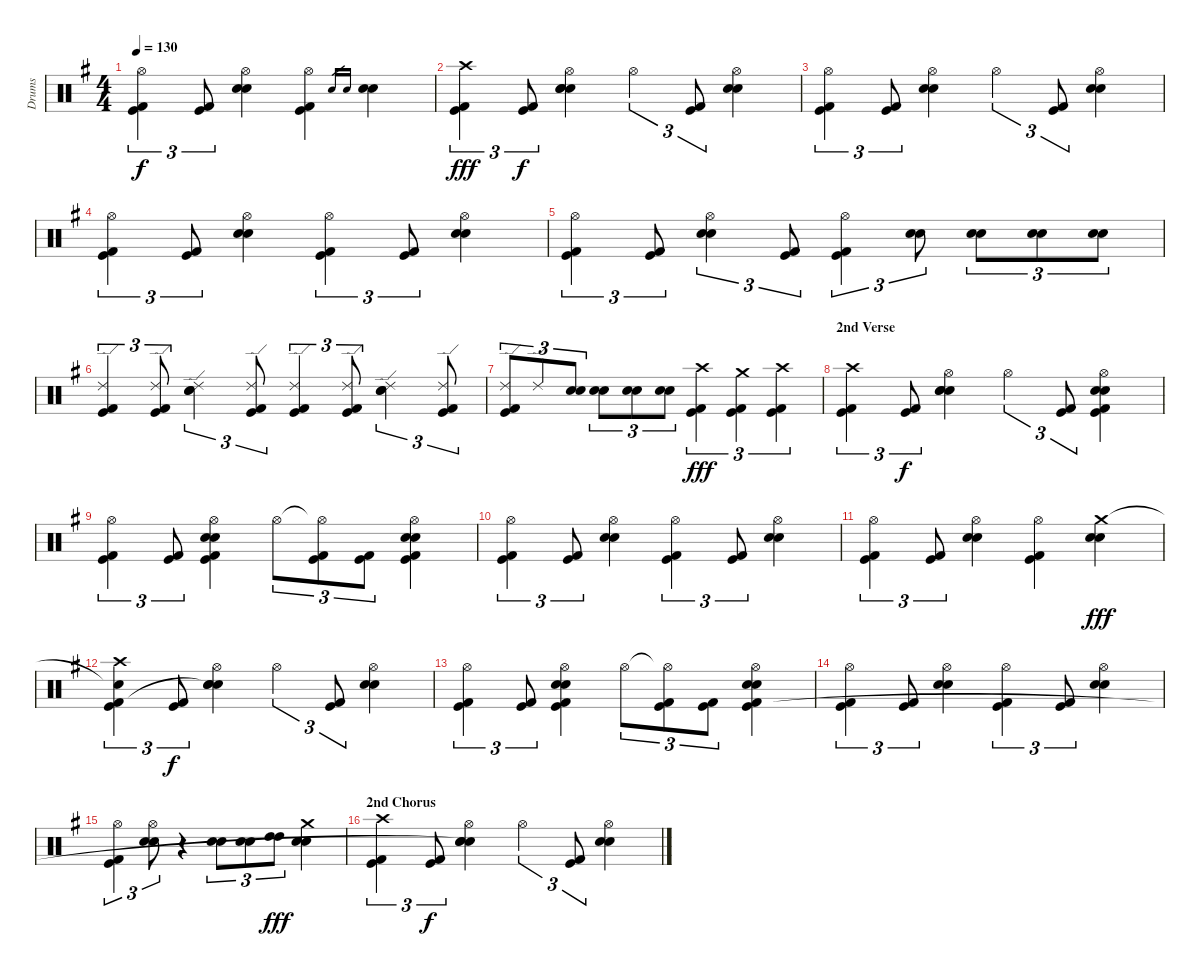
\track ("Drums" "Drums") {instrument percussion}
\staff {score}
\articulation defaults
\ts (4 4)
\tempo 130
\clef neutral
\ks g
("Hi-Hat (open)" "Kick (hit)" "Kick (hit) 2").4{tu (3 2) dy f} ("Kick (hit)" "Kick (hit) 2").8{tu (3 2)} ("Hi-Hat (open)" "Electric Snare (hit)" "Snare (hit) 2").4 ("Hi-Hat (open)" "Kick (hit)" "Kick (hit) 2").4 "Electric Snare (hit)".16{gr} "Snare (hit) 2".16{gr} ("Electric Snare (hit)" "Snare (hit) 2").4 |
("Crash high (hit)" "Kick (hit)" "Kick (hit) 2").4{tu (3 2) dy fff} ("Kick (hit)" "Kick (hit) 2").8{tu (3 2) dy f} ("Hi-Hat (open)" "Electric Snare (hit)" "Snare (hit) 2" "Snare (hit)"{t}).4 "Hi-Hat (open)".4{tu (3 2)} ("Kick (hit)" "Kick (hit) 2").8{tu (3 2)} ("Hi-Hat (open)" "Electric Snare (hit)" "Snare (hit) 2").4 |
("Hi-Hat (open)" "Kick (hit)" "Kick (hit) 2").4{tu (3 2)} ("Kick (hit)" "Kick (hit) 2").8{tu (3 2)} ("Hi-Hat (open)" "Electric Snare (hit)" "Snare (hit) 2").4 "Hi-Hat (open)".4{tu (3 2)} ("Kick (hit)" "Kick (hit) 2").8{tu (3 2)} ("Hi-Hat (open)" "Electric Snare (hit)" "Snare (hit) 2").4 |
("Hi-Hat (open)" "Kick (hit)" "Kick (hit) 2").4{tu (3 2)} ("Kick (hit)" "Kick (hit) 2").8{tu (3 2)} ("Hi-Hat (open)" "Electric Snare (hit)" "Snare (hit) 2").4 ("Hi-Hat (open)" "Kick (hit)" "Kick (hit) 2").4{tu (3 2)} ("Kick (hit)" "Kick (hit) 2").8{tu (3 2)} ("Hi-Hat (open)" "Electric Snare (hit)" "Snare (hit) 2").4 |
("Hi-Hat (open)" "Kick (hit)" "Kick (hit) 2").4{tu (3 2)} ("Kick (hit)" "Kick (hit) 2").8{tu (3 2)} ("Hi-Hat (open)" "Electric Snare (hit)" "Snare (hit) 2").4{tu (3 2)} ("Kick (hit)" "Kick (hit) 2").8{tu (3 2)} ("Hi-Hat (open)" "Kick (hit)" "Kick (hit) 2").4{tu (3 2)} ("Electric Snare (hit)" "Snare (hit) 2").8{tu (3 2)} ("Electric Snare (hit)" "Snare (hit) 2").8{tu (3 2)} ("Electric Snare (hit)" "Snare (hit) 2").8{tu (3 2)} ("Electric Snare (hit)" "Snare (hit) 2").8{tu (3 2)} |
("Ride (edge) 2" "Kick (hit)" "Kick (hit) 2").4{tu (3 2)} ("Ride (edge) 2" "Kick (hit)" "Kick (hit) 2").8{tu (3 2)} ("Ride (edge) 2" "Electric Snare (hit)" "Snare (hit) 2").4{tu (3 2)} ("Ride (edge) 2" "Kick (hit)" "Kick (hit) 2").8{tu (3 2)} ("Ride (edge) 2" "Kick (hit)" "Kick (hit) 2").4{tu (3 2)} ("Ride (edge) 2" "Kick (hit)" "Kick (hit) 2").8{tu (3 2)} ("Ride (edge) 2" "Electric Snare (hit)" "Snare (hit) 2").4{tu (3 2)} ("Ride (edge) 2" "Kick (hit)" "Kick (hit) 2").8{tu (3 2)} |
("Ride (edge) 2" "Kick (hit)" "Kick (hit) 2").8{tu (3 2)} "Ride (edge) 2".8{tu (3 2)} ("Electric Snare (hit)" "Snare (hit) 2").8{tu (3 2)} ("Electric Snare (hit)" "Snare (hit) 2").8{tu (3 2)} ("Electric Snare (hit)" "Snare (hit) 2").8{tu (3 2)} ("Electric Snare (hit)" "Snare (hit) 2").8{tu (3 2)} ("Crash high (hit)" "Kick (hit)" "Kick (hit) 2").4{tu (3 2) dy fff} ("Crash medium (hit)" "Kick (hit)" "Kick (hit) 2").4{tu (3 2)} ("Crash high (hit)" "Kick (hit)" "Kick (hit) 2").4{tu (3 2)} |
\section ("" "2nd Verse")
("Crash high (hit)" "Kick (hit)" "Kick (hit) 2").4{tu (3 2)} ("Kick (hit)" "Kick (hit) 2").8{tu (3 2) dy f} ("Hi-Hat (open)" "Electric Snare (hit)" "Snare (hit) 2" "Snare (hit)").4 "Hi-Hat (open)".4{tu (3 2)} ("Kick (hit)" "Kick (hit) 2").8{tu (3 2)} ("Hi-Hat (open)" "Electric Snare (hit)" "Snare (hit) 2" "Kick (hit)" "Kick (hit) 2").4 |
("Hi-Hat (open)" "Kick (hit)" "Kick (hit) 2").4{tu (3 2)} ("Kick (hit)" "Kick (hit) 2").8{tu (3 2)} ("Hi-Hat (open)" "Electric Snare (hit)" "Snare (hit) 2" "Kick (hit)" "Kick (hit) 2").4 "Hi-Hat (open)".8{tu (3 2)} ("Hi-Hat (open)"{t} "Kick (hit)" "Kick (hit) 2").8{tu (3 2)} ("Kick (hit)" "Kick (hit) 2").8{tu (3 2)} ("Hi-Hat (open)" "Electric Snare (hit)" "Snare (hit) 2" "Kick (hit)" "Kick (hit) 2").4 |
("Hi-Hat (open)" "Kick (hit)" "Kick (hit) 2").4{tu (3 2)} ("Kick (hit)" "Kick (hit) 2").8{tu (3 2)} ("Hi-Hat (open)" "Electric Snare (hit)" "Snare (hit) 2").4 ("Hi-Hat (open)" "Kick (hit)" "Kick (hit) 2").4{tu (3 2)} ("Kick (hit)" "Kick (hit) 2").8{tu (3 2)} ("Hi-Hat (open)" "Electric Snare (hit)" "Snare (hit) 2").4 |
("Hi-Hat (open)" "Kick (hit)" "Kick (hit) 2").4{tu (3 2)} ("Kick (hit)" "Kick (hit) 2").8{tu (3 2)} ("Hi-Hat (open)" "Electric Snare (hit)" "Snare (hit) 2").4 ("Hi-Hat (open)" "Kick (hit)" "Kick (hit) 2").4 ("Crash medium (hit)" "Electric Snare (hit)" "Snare (hit) 2").4{dy fff} |
("Snare (hit)"{t} "Crash high (hit)" "Kick (hit)" "Kick (hit) 2").4{tu (3 2)} ("Kick (hit)" "Kick (hit) 2").8{tu (3 2) dy f} ("Hi-Hat (open)" "Electric Snare (hit)" "Snare (hit) 2" "Snare (hit)"{t}).4 "Hi-Hat (open)".4{tu (3 2)} ("Kick (hit)" "Kick (hit) 2").8{tu (3 2)} ("Hi-Hat (open)" "Electric Snare (hit)" "Snare (hit) 2").4 |
("Hi-Hat (open)" "Kick (hit)" "Kick (hit) 2").4{tu (3 2)} ("Kick (hit)" "Kick (hit) 2").8{tu (3 2)} ("Hi-Hat (open)" "Electric Snare (hit)" "Snare (hit) 2" "Kick (hit)" "Kick (hit) 2").4 "Hi-Hat (open)".8{tu (3 2)} ("Hi-Hat (open)"{t} "Kick (hit)" "Kick (hit) 2").8{tu (3 2)} ("Kick (hit)" "Kick (hit) 2").8{tu (3 2)} ("Hi-Hat (open)" "Electric Snare (hit)" "Snare (hit) 2" "Kick (hit)" "Kick (hit) 2").4 |
("Hi-Hat (open)" "Kick (hit)" "Kick (hit) 2").4{tu (3 2)} ("Kick (hit)" "Kick (hit) 2").8{tu (3 2)} ("Hi-Hat (open)" "Electric Snare (hit)" "Snare (hit) 2").4 ("Hi-Hat (open)" "Kick (hit)" "Kick (hit) 2").4{tu (3 2)} ("Kick (hit)" "Kick (hit) 2").8{tu (3 2)} ("Hi-Hat (open)" "Electric Snare (hit)" "Snare (hit) 2").4 |
("Hi-Hat (open)" "Kick (hit)" "Kick (hit) 2").4{tu (3 2)} ("Hi-Hat (open)" "Electric Snare (hit)" "Snare (hit) 2").8{tu (3 2)} r.4 ("Electric Snare (hit)" "Snare (hit) 2").8{tu (3 2)} ("Electric Snare (hit)" "Snare (hit) 2").8{tu (3 2)} ("High Tom (hit)" "High Tom (hit)").8{tu (3 2) dy fff} ("Electric Snare (hit)" "Snare (hit) 2" "Crash medium (hit)").4 |
\section ("" "2nd Chorus")
("Crash high (hit)" "Kick (hit)" "Kick (hit) 2").4{tu (3 2)} ("Kick (hit)" "Kick (hit) 2").8{tu (3 2) dy f} ("Hi-Hat (open)" "Electric Snare (hit)" "Snare (hit) 2" "Snare (hit)"{t}).4 "Hi-Hat (open)".4{tu (3 2)} ("Kick (hit)" "Kick (hit) 2").8{tu (3 2)} ("Hi-Hat (open)" "Electric Snare (hit)" "Snare (hit) 2").4
